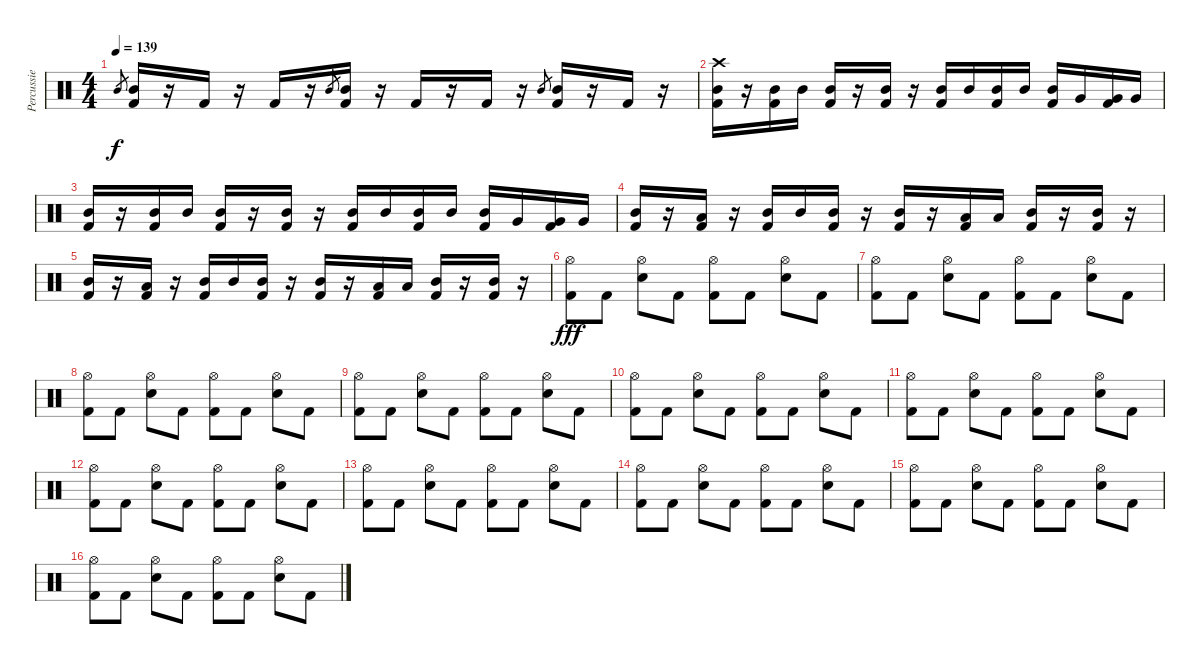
\track ("Percussie" "Percussie") {instrument percussion}
\staff {score}
\articulation defaults
\ts (4 4)
\tempo 139
\clef neutral
\ks c "Mid Tom (hit)".8{gr dy f}
("Mid Tom (hit)" "Kick (hit) 2").16 r.16 "Kick (hit) 2".16 r.16 "Kick (hit) 2".16 r.16 "Mid Tom (hit)".8{gr} ("Mid Tom (hit)" "Kick (hit) 2").16 r.16 "Kick (hit) 2".16 r.16 "Kick (hit) 2".16 r.16 "Mid Tom (hit)".8{gr} ("Mid Tom (hit)" "Kick (hit) 2").16 r.16 "Kick (hit) 2".16 r.16 |
("Crash high (hit)" "Mid Tom (hit)" "Kick (hit) 2").16 r.16 ("Mid Tom (hit)" "Kick (hit) 2").16 "Mid Tom (hit)".16 ("Mid Tom (hit)" "Kick (hit) 2").16 r.16 ("Mid Tom (hit)" "Kick (hit) 2").16 r.16 ("Mid Tom (hit)" "Kick (hit) 2").16 "Mid Tom (hit)".16 ("Mid Tom (hit)" "Kick (hit) 2").16 "Mid Tom (hit)".16 ("Mid Tom (hit)" "Kick (hit) 2").16 "Very Low Tom (hit)".16 ("Very Low Tom (hit)" "Kick (hit) 2").16 "Very Low Tom (hit)".16 |
("Mid Tom (hit)" "Kick (hit) 2").16 r.16 ("Mid Tom (hit)" "Kick (hit) 2").16 "Mid Tom (hit)".16 ("Mid Tom (hit)" "Kick (hit) 2").16 r.16 ("Mid Tom (hit)" "Kick (hit) 2").16 r.16 ("Mid Tom (hit)" "Kick (hit) 2").16 "Mid Tom (hit)".16 ("Mid Tom (hit)" "Kick (hit) 2").16 "Mid Tom (hit)".16 ("Mid Tom (hit)" "Kick (hit) 2").16 "Very Low Tom (hit)".16 ("Very Low Tom (hit)" "Kick (hit) 2").16 "Very Low Tom (hit)".16 |
("Mid Tom (hit)" "Kick (hit) 2").16 r.16 ("Low Tom (hit)" "Kick (hit) 2").16 r.16 ("Mid Tom (hit)" "Kick (hit) 2").16 "Mid Tom (hit)".16 ("Mid Tom (hit)" "Kick (hit) 2").16 r.16 ("Mid Tom (hit)" "Kick (hit) 2").16 r.16 ("Low Tom (hit)" "Kick (hit) 2").16 "Low Tom (hit)".16 ("Mid Tom (hit)" "Kick (hit) 2").16 r.16 ("Mid Tom (hit)" "Kick (hit) 2").16 r.16 |
("Mid Tom (hit)" "Kick (hit) 2").16 r.16 ("Low Tom (hit)" "Kick (hit) 2").16 r.16 ("Mid Tom (hit)" "Kick (hit) 2").16 "Mid Tom (hit)".16 ("Mid Tom (hit)" "Kick (hit) 2").16 r.16 ("Mid Tom (hit)" "Kick (hit) 2").16 r.16 ("Low Tom (hit)" "Kick (hit) 2").16 "Low Tom (hit)".16 ("Mid Tom (hit)" "Kick (hit) 2").16 r.16 ("Mid Tom (hit)" "Kick (hit) 2").16 r.16 |
("Hi-Hat (open)" "Kick (hit) 2").8{dy fff} "Kick (hit) 2".8 ("Hi-Hat (open)" "Electric Snare (hit)").8 "Kick (hit) 2".8 ("Hi-Hat (open)" "Kick (hit) 2").8 "Kick (hit) 2".8 ("Hi-Hat (open)" "Electric Snare (hit)").8 "Kick (hit) 2".8 |
("Hi-Hat (open)" "Kick (hit) 2").8 "Kick (hit) 2".8 ("Hi-Hat (open)" "Electric Snare (hit)").8 "Kick (hit) 2".8 ("Hi-Hat (open)" "Kick (hit) 2").8 "Kick (hit) 2".8 ("Hi-Hat (open)" "Electric Snare (hit)").8 "Kick (hit) 2".8 |
("Hi-Hat (open)" "Kick (hit) 2").8 "Kick (hit) 2".8 ("Hi-Hat (open)" "Electric Snare (hit)").8 "Kick (hit) 2".8 ("Hi-Hat (open)" "Kick (hit) 2").8 "Kick (hit) 2".8 ("Hi-Hat (open)" "Electric Snare (hit)").8 "Kick (hit) 2".8 |
("Hi-Hat (open)" "Kick (hit) 2").8 "Kick (hit) 2".8 ("Hi-Hat (open)" "Electric Snare (hit)").8 "Kick (hit) 2".8 ("Hi-Hat (open)" "Kick (hit) 2").8 "Kick (hit) 2".8 ("Hi-Hat (open)" "Electric Snare (hit)").8 "Kick (hit) 2".8 |
("Hi-Hat (open)" "Kick (hit) 2").8 "Kick (hit) 2".8 ("Hi-Hat (open)" "Electric Snare (hit)").8 "Kick (hit) 2".8 ("Hi-Hat (open)" "Kick (hit) 2").8 "Kick (hit) 2".8 ("Hi-Hat (open)" "Electric Snare (hit)").8 "Kick (hit) 2".8 |
("Hi-Hat (open)" "Kick (hit) 2").8 "Kick (hit) 2".8 ("Hi-Hat (open)" "Electric Snare (hit)").8 "Kick (hit) 2".8 ("Hi-Hat (open)" "Kick (hit) 2").8 "Kick (hit) 2".8 ("Hi-Hat (open)" "Electric Snare (hit)").8 "Kick (hit) 2".8 |
("Hi-Hat (open)" "Kick (hit) 2").8 "Kick (hit) 2".8 ("Hi-Hat (open)" "Electric Snare (hit)").8 "Kick (hit) 2".8 ("Hi-Hat (open)" "Kick (hit) 2").8 "Kick (hit) 2".8 ("Hi-Hat (open)" "Electric Snare (hit)").8 "Kick (hit) 2".8 |
("Hi-Hat (open)" "Kick (hit) 2").8 "Kick (hit) 2".8 ("Hi-Hat (open)" "Electric Snare (hit)").8 "Kick (hit) 2".8 ("Hi-Hat (open)" "Kick (hit) 2").8 "Kick (hit) 2".8 ("Hi-Hat (open)" "Electric Snare (hit)").8 "Kick (hit) 2".8 |
("Hi-Hat (open)" "Kick (hit) 2").8 "Kick (hit) 2".8 ("Hi-Hat (open)" "Electric Snare (hit)").8 "Kick (hit) 2".8 ("Hi-Hat (open)" "Kick (hit) 2").8 "Kick (hit) 2".8 ("Hi-Hat (open)" "Electric Snare (hit)").8 "Kick (hit) 2".8 |
("Hi-Hat (open)" "Kick (hit) 2").8 "Kick (hit) 2".8 ("Hi-Hat (open)" "Electric Snare (hit)").8 "Kick (hit) 2".8 ("Hi-Hat (open)" "Kick (hit) 2").8 "Kick (hit) 2".8 ("Hi-Hat (open)" "Electric Snare (hit)").8 "Kick (hit) 2".8 |
("Hi-Hat (open)" "Kick (hit) 2").8 "Kick (hit) 2".8 ("Hi-Hat (open)" "Electric Snare (hit)").8 "Kick (hit) 2".8 ("Hi-Hat (open)" "Kick (hit) 2").8 "Kick (hit) 2".8 ("Hi-Hat (open)" "Electric Snare (hit)").8 "Kick (hit) 2".8
